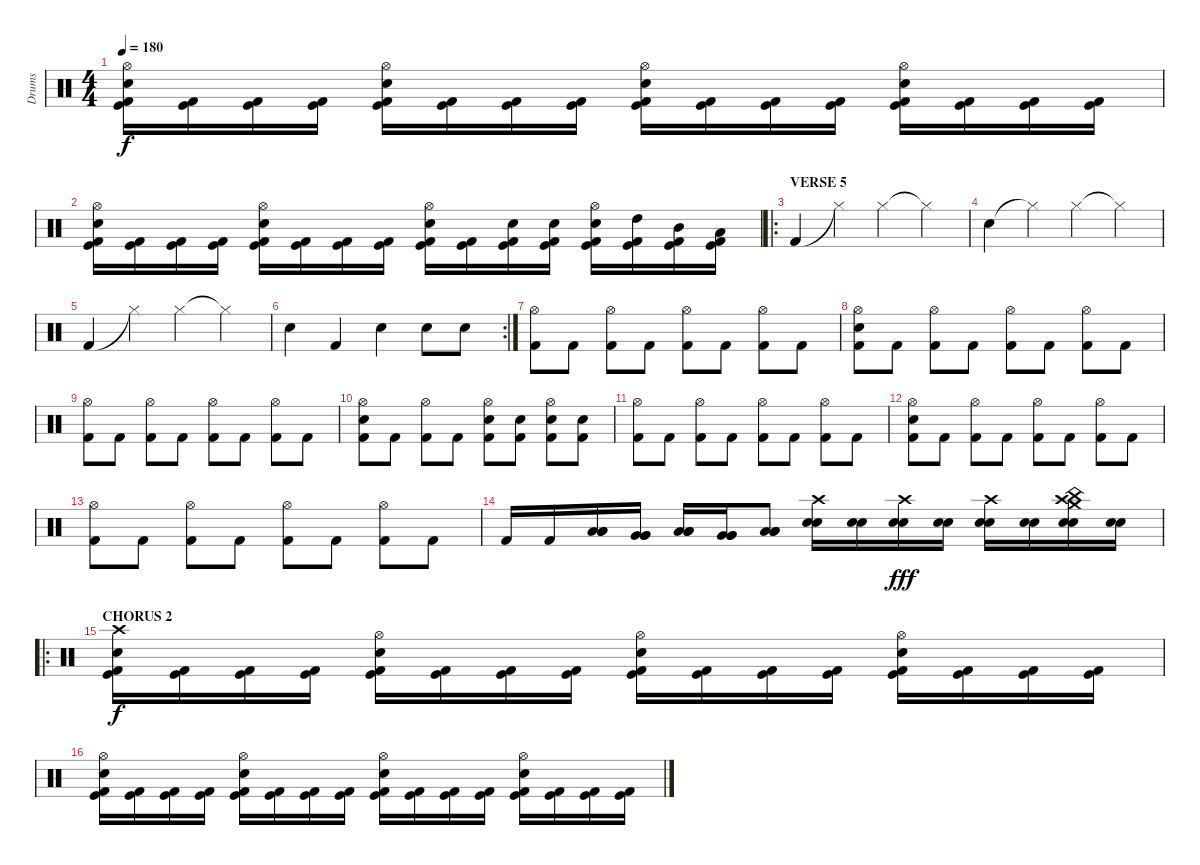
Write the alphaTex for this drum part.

\track ("Drums" "Drums") {instrument percussion}
\staff {score}
\articulation defaults
\ts (4 4)
\tempo 180
\clef neutral
\ks c
("Hi-Hat (open)" "Electric Snare (hit)" "Kick (hit)" "Kick (hit) 2").16{dy f} ("Kick (hit)" "Kick (hit) 2").16 ("Kick (hit)" "Kick (hit) 2").16 ("Kick (hit)" "Kick (hit) 2").16 ("Hi-Hat (open)" "Electric Snare (hit)" "Kick (hit)" "Kick (hit) 2").16 ("Kick (hit)" "Kick (hit) 2").16 ("Kick (hit)" "Kick (hit) 2").16 ("Kick (hit)" "Kick (hit) 2").16 ("Hi-Hat (open)" "Electric Snare (hit)" "Kick (hit)" "Kick (hit) 2").16 ("Kick (hit)" "Kick (hit) 2").16 ("Kick (hit)" "Kick (hit) 2").16 ("Kick (hit)" "Kick (hit) 2").16 ("Hi-Hat (open)" "Electric Snare (hit)" "Kick (hit)" "Kick (hit) 2").16 ("Kick (hit)" "Kick (hit) 2").16 ("Kick (hit)" "Kick (hit) 2").16 ("Kick (hit)" "Kick (hit) 2").16 |
("Hi-Hat (open)" "Electric Snare (hit)" "Kick (hit)" "Kick (hit) 2").16 ("Kick (hit)" "Kick (hit) 2").16 ("Kick (hit)" "Kick (hit) 2").16 ("Kick (hit)" "Kick (hit) 2").16 ("Hi-Hat (open)" "Electric Snare (hit)" "Kick (hit)" "Kick (hit) 2").16 ("Kick (hit)" "Kick (hit) 2").16 ("Kick (hit)" "Kick (hit) 2").16 ("Kick (hit)" "Kick (hit) 2").16 ("Hi-Hat (open)" "Electric Snare (hit)" "Kick (hit)" "Kick (hit) 2").16 ("Kick (hit)" "Kick (hit) 2").16 ("Electric Snare (hit)" "Kick (hit)" "Kick (hit) 2").16 ("Electric Snare (hit)" "Kick (hit)" "Kick (hit) 2").16 ("Hi-Hat (open)" "Electric Snare (hit)" "Kick (hit)" "Kick (hit) 2").16 ("High Tom (hit)" "Kick (hit)" "Kick (hit) 2").16 ("Mid Tom (hit)" "Kick (hit)" "Kick (hit) 2").16 ("Low Tom (hit)" "Kick (hit)" "Kick (hit) 2").16 |
\ro
\section ("" "VERSE 5")
"Kick (hit) 2".4 "Hi-Hat (closed)"{t}.4 "Hi-Hat (closed)".4 "Hi-Hat (closed)"{t}.4 |
"Electric Snare (hit)".4 "Hi-Hat (closed)"{t}.4 "Hi-Hat (closed)".4 "Hi-Hat (closed)"{t}.4 |
"Kick (hit) 2".4 "Hi-Hat (closed)"{t}.4 "Hi-Hat (closed)".4 "Hi-Hat (closed)"{t}.4 |
\rc 2 "Electric Snare (hit)".4 "Kick (hit) 2".4 "Electric Snare (hit)".4 "Electric Snare (hit)".8 "Electric Snare (hit)".8
|
("Kick (hit) 2" "Hi-Hat (open)").8 "Kick (hit) 2".8 ("Kick (hit) 2" "Hi-Hat (open)").8 "Kick (hit) 2".8 ("Kick (hit) 2" "Hi-Hat (open)").8 "Kick (hit) 2".8 ("Kick (hit) 2" "Hi-Hat (open)").8 "Kick (hit) 2".8 |
("Electric Snare (hit)" "Kick (hit) 2" "Hi-Hat (open)").8 "Kick (hit) 2".8 ("Kick (hit) 2" "Hi-Hat (open)").8 "Kick (hit) 2".8 ("Kick (hit) 2" "Hi-Hat (open)").8 "Kick (hit) 2".8 ("Kick (hit) 2" "Hi-Hat (open)").8 "Kick (hit) 2".8 |
("Kick (hit) 2" "Hi-Hat (open)").8 "Kick (hit) 2".8 ("Kick (hit) 2" "Hi-Hat (open)").8 "Kick (hit) 2".8 ("Kick (hit) 2" "Hi-Hat (open)").8 "Kick (hit) 2".8 ("Kick (hit) 2" "Hi-Hat (open)").8 "Kick (hit) 2".8 |
("Electric Snare (hit)" "Kick (hit) 2" "Hi-Hat (open)").8 "Kick (hit) 2".8 ("Kick (hit) 2" "Hi-Hat (open)").8 "Kick (hit) 2".8 ("Electric Snare (hit)" "Kick (hit) 2" "Hi-Hat (open)").8 ("Electric Snare (hit)" "Kick (hit) 2").8 ("Electric Snare (hit)" "Kick (hit) 2" "Hi-Hat (open)").8 ("Electric Snare (hit)" "Kick (hit) 2").8 |
("Kick (hit) 2" "Hi-Hat (open)").8 "Kick (hit) 2".8 ("Kick (hit) 2" "Hi-Hat (open)").8 "Kick (hit) 2".8 ("Kick (hit) 2" "Hi-Hat (open)").8 "Kick (hit) 2".8 ("Kick (hit) 2" "Hi-Hat (open)").8 "Kick (hit) 2".8 |
("Electric Snare (hit)" "Kick (hit) 2" "Hi-Hat (open)").8 "Kick (hit) 2".8 ("Kick (hit) 2" "Hi-Hat (open)").8 "Kick (hit) 2".8 ("Kick (hit) 2" "Hi-Hat (open)").8 "Kick (hit) 2".8 ("Kick (hit) 2" "Hi-Hat (open)").8 "Kick (hit) 2".8 |
("Kick (hit) 2" "Hi-Hat (open)").8 "Kick (hit) 2".8 ("Kick (hit) 2" "Hi-Hat (open)").8 "Kick (hit) 2".8 ("Kick (hit) 2" "Hi-Hat (open)").8 "Kick (hit) 2".8 ("Kick (hit) 2" "Hi-Hat (open)").8 "Kick (hit) 2".8 |
"Kick (hit) 2".16 "Kick (hit) 2".16 ("Low Tom (hit)" "Low Tom (hit)" "Low Tom (hit)").16 ("Very Low Tom (hit)" "Very Low Tom (hit)" "Very Low Tom (hit)").16 ("Low Tom (hit)" "Low Tom (hit)" "Low Tom (hit)").16 ("Very Low Tom (hit)" "Very Low Tom (hit)" "Very Low Tom (hit)").16 ("Low Floor Tom (hit)" "Low Floor Tom (hit)" "Low Floor Tom (hit)").8 ("Crash high (hit)" "Electric Snare (hit)" "Electric Snare (hit)").16 ("Electric Snare (hit)" "Electric Snare (hit)").16 ("Crash high (hit)" "Electric Snare (hit)" "Electric Snare (hit)").16{dy fff} ("Electric Snare (hit)" "Electric Snare (hit)").16 ("Crash high (hit)" "Electric Snare (hit)" "Electric Snare (hit)").16 ("Electric Snare (hit)" "Electric Snare (hit)").16 ("Crash medium (hit)" "Crash high (hit)" "China (hit)" "Electric Snare (hit)" "Electric Snare (hit)").16 ("Electric Snare (hit)" "Electric Snare (hit)").16 |
\ro
\section ("" "CHORUS 2")
("Crash high (hit)" "Electric Snare (hit)" "Kick (hit)" "Kick (hit) 2").16{dy f} ("Kick (hit)" "Kick (hit) 2").16 ("Kick (hit)" "Kick (hit) 2").16 ("Kick (hit)" "Kick (hit) 2").16 ("Hi-Hat (open)" "Electric Snare (hit)" "Kick (hit)" "Kick (hit) 2").16 ("Kick (hit)" "Kick (hit) 2").16 ("Kick (hit)" "Kick (hit) 2").16 ("Kick (hit)" "Kick (hit) 2").16 ("Hi-Hat (open)" "Electric Snare (hit)" "Kick (hit)" "Kick (hit) 2").16 ("Kick (hit)" "Kick (hit) 2").16 ("Kick (hit)" "Kick (hit) 2").16 ("Kick (hit)" "Kick (hit) 2").16 ("Hi-Hat (open)" "Electric Snare (hit)" "Kick (hit)" "Kick (hit) 2").16 ("Kick (hit)" "Kick (hit) 2").16 ("Kick (hit)" "Kick (hit) 2").16 ("Kick (hit)" "Kick (hit) 2").16 |
("Hi-Hat (open)" "Electric Snare (hit)" "Kick (hit)" "Kick (hit) 2").16 ("Kick (hit)" "Kick (hit) 2").16 ("Kick (hit)" "Kick (hit) 2").16 ("Kick (hit)" "Kick (hit) 2").16 ("Hi-Hat (open)" "Electric Snare (hit)" "Kick (hit)" "Kick (hit) 2").16 ("Kick (hit)" "Kick (hit) 2").16 ("Kick (hit)" "Kick (hit) 2").16 ("Kick (hit)" "Kick (hit) 2").16 ("Hi-Hat (open)" "Electric Snare (hit)" "Kick (hit)" "Kick (hit) 2").16 ("Kick (hit)" "Kick (hit) 2").16 ("Kick (hit)" "Kick (hit) 2").16 ("Kick (hit)" "Kick (hit) 2").16 ("Hi-Hat (open)" "Electric Snare (hit)" "Kick (hit)" "Kick (hit) 2").16 ("Kick (hit)" "Kick (hit) 2").16 ("Kick (hit)" "Kick (hit) 2").16 ("Kick (hit)" "Kick (hit) 2").16
